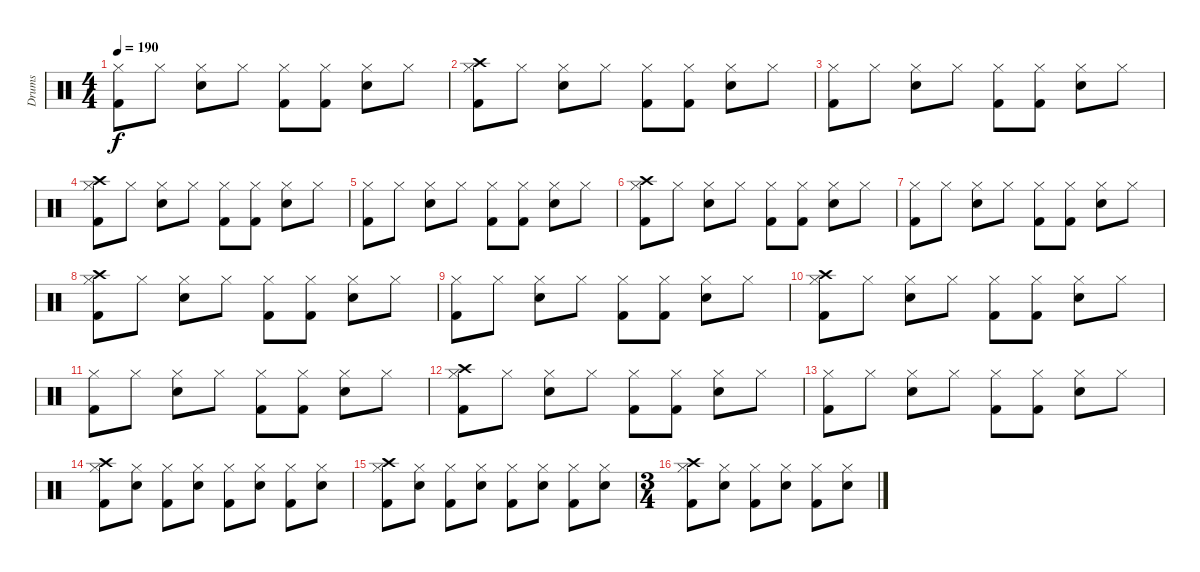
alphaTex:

\track ("Drums" "Drums") {instrument percussion}
\staff {score}
\articulation defaults
\ts (4 4)
\tempo 190
\clef neutral
\ks c
("Kick (hit) 2" "Hi-Hat (closed)").8{dy f} "Hi-Hat (closed)".8 ("Snare (hit) 2" "Hi-Hat (closed)").8 "Hi-Hat (closed)".8 ("Kick (hit) 2" "Hi-Hat (closed)").8 ("Kick (hit) 2" "Hi-Hat (closed)").8 ("Snare (hit) 2" "Hi-Hat (closed)").8 "Hi-Hat (closed)".8 |
("Kick (hit) 2" "Hi-Hat (closed)" "Crash high (hit)").8 "Hi-Hat (closed)".8 ("Snare (hit) 2" "Hi-Hat (closed)").8 "Hi-Hat (closed)".8 ("Kick (hit) 2" "Hi-Hat (closed)").8 ("Kick (hit) 2" "Hi-Hat (closed)").8 ("Snare (hit) 2" "Hi-Hat (closed)").8 "Hi-Hat (closed)".8 |
("Kick (hit) 2" "Hi-Hat (closed)").8 "Hi-Hat (closed)".8 ("Snare (hit) 2" "Hi-Hat (closed)").8 "Hi-Hat (closed)".8 ("Kick (hit) 2" "Hi-Hat (closed)").8 ("Kick (hit) 2" "Hi-Hat (closed)").8 ("Snare (hit) 2" "Hi-Hat (closed)").8 "Hi-Hat (closed)".8 |
("Kick (hit) 2" "Hi-Hat (closed)" "Crash high (hit)").8 "Hi-Hat (closed)".8 ("Snare (hit) 2" "Hi-Hat (closed)").8 "Hi-Hat (closed)".8 ("Kick (hit) 2" "Hi-Hat (closed)").8 ("Kick (hit) 2" "Hi-Hat (closed)").8 ("Snare (hit) 2" "Hi-Hat (closed)").8 "Hi-Hat (closed)".8 |
("Kick (hit) 2" "Hi-Hat (closed)").8 "Hi-Hat (closed)".8 ("Snare (hit) 2" "Hi-Hat (closed)").8 "Hi-Hat (closed)".8 ("Kick (hit) 2" "Hi-Hat (closed)").8 ("Kick (hit) 2" "Hi-Hat (closed)").8 ("Snare (hit) 2" "Hi-Hat (closed)").8 "Hi-Hat (closed)".8 |
("Kick (hit) 2" "Hi-Hat (closed)" "Crash high (hit)").8 "Hi-Hat (closed)".8 ("Snare (hit) 2" "Hi-Hat (closed)").8 "Hi-Hat (closed)".8 ("Kick (hit) 2" "Hi-Hat (closed)").8 ("Kick (hit) 2" "Hi-Hat (closed)").8 ("Snare (hit) 2" "Hi-Hat (closed)").8 "Hi-Hat (closed)".8 |
("Kick (hit) 2" "Hi-Hat (closed)").8 "Hi-Hat (closed)".8 ("Snare (hit) 2" "Hi-Hat (closed)").8 "Hi-Hat (closed)".8 ("Kick (hit) 2" "Hi-Hat (closed)").8 ("Kick (hit) 2" "Hi-Hat (closed)").8 ("Snare (hit) 2" "Hi-Hat (closed)").8 "Hi-Hat (closed)".8 |
("Kick (hit) 2" "Hi-Hat (closed)" "Crash high (hit)").8 "Hi-Hat (closed)".8 ("Snare (hit) 2" "Hi-Hat (closed)").8 "Hi-Hat (closed)".8 ("Kick (hit) 2" "Hi-Hat (closed)").8 ("Kick (hit) 2" "Hi-Hat (closed)").8 ("Snare (hit) 2" "Hi-Hat (closed)").8 "Hi-Hat (closed)".8 |
("Kick (hit) 2" "Hi-Hat (closed)").8 "Hi-Hat (closed)".8 ("Snare (hit) 2" "Hi-Hat (closed)").8 "Hi-Hat (closed)".8 ("Kick (hit) 2" "Hi-Hat (closed)").8 ("Kick (hit) 2" "Hi-Hat (closed)").8 ("Snare (hit) 2" "Hi-Hat (closed)").8 "Hi-Hat (closed)".8 |
("Kick (hit) 2" "Hi-Hat (closed)" "Crash high (hit)").8 "Hi-Hat (closed)".8 ("Snare (hit) 2" "Hi-Hat (closed)").8 "Hi-Hat (closed)".8 ("Kick (hit) 2" "Hi-Hat (closed)").8 ("Kick (hit) 2" "Hi-Hat (closed)").8 ("Snare (hit) 2" "Hi-Hat (closed)").8 "Hi-Hat (closed)".8 |
("Kick (hit) 2" "Hi-Hat (closed)").8 "Hi-Hat (closed)".8 ("Snare (hit) 2" "Hi-Hat (closed)").8 "Hi-Hat (closed)".8 ("Kick (hit) 2" "Hi-Hat (closed)").8 ("Kick (hit) 2" "Hi-Hat (closed)").8 ("Snare (hit) 2" "Hi-Hat (closed)").8 "Hi-Hat (closed)".8 |
("Kick (hit) 2" "Hi-Hat (closed)" "Crash high (hit)").8 "Hi-Hat (closed)".8 ("Snare (hit) 2" "Hi-Hat (closed)").8 "Hi-Hat (closed)".8 ("Kick (hit) 2" "Hi-Hat (closed)").8 ("Kick (hit) 2" "Hi-Hat (closed)").8 ("Snare (hit) 2" "Hi-Hat (closed)").8 "Hi-Hat (closed)".8 |
("Kick (hit) 2" "Hi-Hat (closed)").8 "Hi-Hat (closed)".8 ("Snare (hit) 2" "Hi-Hat (closed)").8 "Hi-Hat (closed)".8 ("Kick (hit) 2" "Hi-Hat (closed)").8 ("Kick (hit) 2" "Hi-Hat (closed)").8 ("Snare (hit) 2" "Hi-Hat (closed)").8 "Hi-Hat (closed)".8 |
("Kick (hit) 2" "Hi-Hat (closed)" "Crash high (hit)").8 ("Snare (hit) 2" "Hi-Hat (closed)").8 ("Kick (hit) 2" "Hi-Hat (closed)").8 ("Snare (hit) 2" "Hi-Hat (closed)").8 ("Kick (hit) 2" "Hi-Hat (closed)").8 ("Snare (hit) 2" "Hi-Hat (closed)").8 ("Kick (hit) 2" "Hi-Hat (closed)").8 ("Snare (hit) 2" "Hi-Hat (closed)").8 |
("Kick (hit) 2" "Hi-Hat (closed)" "Crash high (hit)").8 ("Snare (hit) 2" "Hi-Hat (closed)").8 ("Kick (hit) 2" "Hi-Hat (closed)").8 ("Snare (hit) 2" "Hi-Hat (closed)").8 ("Kick (hit) 2" "Hi-Hat (closed)").8 ("Snare (hit) 2" "Hi-Hat (closed)").8 ("Kick (hit) 2" "Hi-Hat (closed)").8 ("Snare (hit) 2" "Hi-Hat (closed)").8 |
\ts (3 4)
("Kick (hit) 2" "Hi-Hat (closed)" "Crash high (hit)").8 ("Snare (hit) 2" "Hi-Hat (closed)").8 ("Kick (hit) 2" "Hi-Hat (closed)").8 ("Snare (hit) 2" "Hi-Hat (closed)").8 ("Kick (hit) 2" "Hi-Hat (closed)").8 ("Snare (hit) 2" "Hi-Hat (closed)").8
